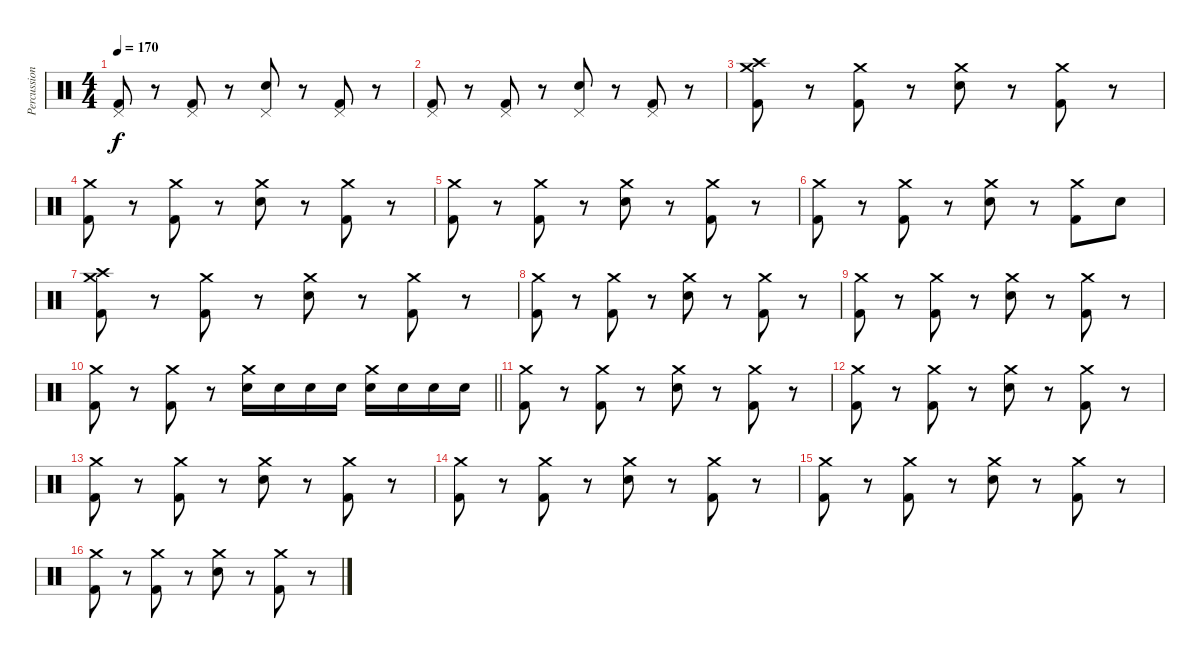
\track ("Percussion" "Percussion") {instrument percussion}
\staff {score}
\articulation defaults
\ts (4 4)
\tempo 170
\clef neutral
\ks c
("Pedal Hi-Hat (hit)" "Kick (hit) 2").8{dy f} r.8 ("Pedal Hi-Hat (hit)" "Kick (hit) 2").8 r.8 ("Pedal Hi-Hat (hit)" "Electric Snare (hit)").8 r.8 ("Pedal Hi-Hat (hit)" "Kick (hit) 2").8 r.8 |
("Pedal Hi-Hat (hit)" "Kick (hit) 2").8 r.8 ("Pedal Hi-Hat (hit)" "Kick (hit) 2").8 r.8 ("Pedal Hi-Hat (hit)" "Electric Snare (hit)").8 r.8 ("Pedal Hi-Hat (hit)" "Kick (hit) 2").8 r.8 |
("Crash medium (hit)" "Crash high (hit)" "Kick (hit) 2").8 r.8 ("Crash medium (hit)" "Kick (hit) 2").8 r.8 ("Crash medium (hit)" "Electric Snare (hit)").8 r.8 ("Crash medium (hit)" "Kick (hit) 2").8 r.8 |
("Crash medium (hit)" "Kick (hit) 2").8 r.8 ("Crash medium (hit)" "Kick (hit) 2").8 r.8 ("Crash medium (hit)" "Electric Snare (hit)").8 r.8 ("Crash medium (hit)" "Kick (hit) 2").8 r.8 |
("Crash medium (hit)" "Kick (hit) 2").8 r.8 ("Crash medium (hit)" "Kick (hit) 2").8 r.8 ("Crash medium (hit)" "Electric Snare (hit)").8 r.8 ("Crash medium (hit)" "Kick (hit) 2").8 r.8 |
("Crash medium (hit)" "Kick (hit) 2").8 r.8 ("Crash medium (hit)" "Kick (hit) 2").8 r.8 ("Crash medium (hit)" "Electric Snare (hit)").8 r.8 ("Crash medium (hit)" "Kick (hit) 2").8 "Electric Snare (hit)".8 |
("Crash medium (hit)" "Crash high (hit)" "Kick (hit) 2").8 r.8 ("Crash medium (hit)" "Kick (hit) 2").8 r.8 ("Crash medium (hit)" "Electric Snare (hit)").8 r.8 ("Crash medium (hit)" "Kick (hit) 2").8 r.8 |
("Crash medium (hit)" "Kick (hit) 2").8 r.8 ("Crash medium (hit)" "Kick (hit) 2").8 r.8 ("Crash medium (hit)" "Electric Snare (hit)").8 r.8 ("Crash medium (hit)" "Kick (hit) 2").8 r.8 |
("Crash medium (hit)" "Kick (hit) 2").8 r.8 ("Crash medium (hit)" "Kick (hit) 2").8 r.8 ("Crash medium (hit)" "Electric Snare (hit)").8 r.8 ("Crash medium (hit)" "Kick (hit) 2").8 r.8 |
\barLineRight lightlight
("Crash medium (hit)" "Kick (hit) 2").8 r.8 ("Crash medium (hit)" "Kick (hit) 2").8 r.8 ("Crash medium (hit)" "Electric Snare (hit)").16 "Electric Snare (hit)".16 "Electric Snare (hit)".16 "Electric Snare (hit)".16 ("Crash medium (hit)" "Electric Snare (hit)").16 "Electric Snare (hit)".16 "Electric Snare (hit)".16 "Electric Snare (hit)".16 |
("Crash medium (hit)" "Kick (hit) 2").8 r.8 ("Crash medium (hit)" "Kick (hit) 2").8 r.8 ("Crash medium (hit)" "Electric Snare (hit)").8 r.8 ("Crash medium (hit)" "Kick (hit) 2").8 r.8 |
("Crash medium (hit)" "Kick (hit) 2").8 r.8 ("Crash medium (hit)" "Kick (hit) 2").8 r.8 ("Crash medium (hit)" "Electric Snare (hit)").8 r.8 ("Crash medium (hit)" "Kick (hit) 2").8 r.8 |
("Crash medium (hit)" "Kick (hit) 2").8 r.8 ("Crash medium (hit)" "Kick (hit) 2").8 r.8 ("Crash medium (hit)" "Electric Snare (hit)").8 r.8 ("Crash medium (hit)" "Kick (hit) 2").8 r.8 |
("Crash medium (hit)" "Kick (hit) 2").8 r.8 ("Crash medium (hit)" "Kick (hit) 2").8 r.8 ("Crash medium (hit)" "Electric Snare (hit)").8 r.8 ("Crash medium (hit)" "Kick (hit) 2").8 r.8 |
("Crash medium (hit)" "Kick (hit) 2").8 r.8 ("Crash medium (hit)" "Kick (hit) 2").8 r.8 ("Crash medium (hit)" "Electric Snare (hit)").8 r.8 ("Crash medium (hit)" "Kick (hit) 2").8 r.8 |
("Crash medium (hit)" "Kick (hit) 2").8 r.8 ("Crash medium (hit)" "Kick (hit) 2").8 r.8 ("Crash medium (hit)" "Electric Snare (hit)").8 r.8 ("Crash medium (hit)" "Kick (hit) 2").8 r.8
